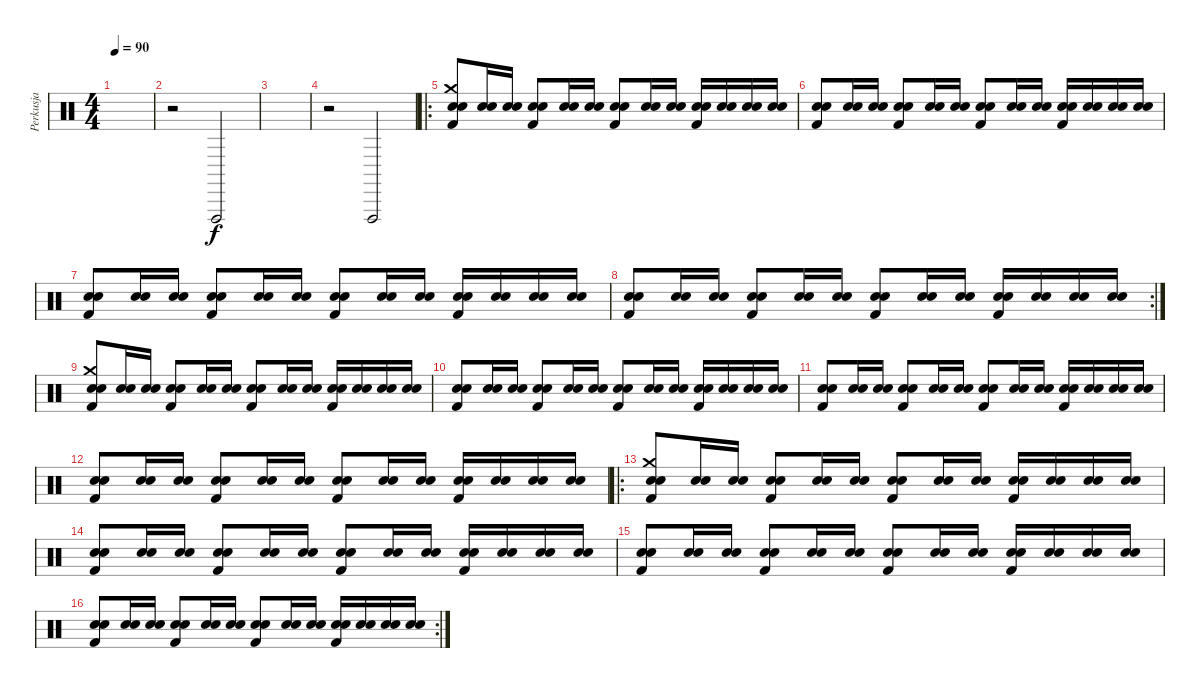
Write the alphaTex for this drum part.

\track ("Perkusja" "Perkusja") {instrument percussion}
\staff {score}
\articulation defaults
\ts (4 4)
\tempo 90
\clef neutral
\ks c
|
r.2 "Vibraslap (hit)".2 |
|
r.2 "Vibraslap (hit)".2 |
\ro
("Kick (hit) 2" "Crash medium (hit)" "Snare (hit) 2" "Electric Snare (hit)").8 ("Snare (hit) 2" "Electric Snare (hit)").16 ("Snare (hit) 2" "Electric Snare (hit)").16 ("Kick (hit) 2" "Snare (hit) 2" "Electric Snare (hit)").8 ("Snare (hit) 2" "Electric Snare (hit)").16 ("Snare (hit) 2" "Electric Snare (hit)").16 ("Kick (hit) 2" "Snare (hit) 2" "Electric Snare (hit)").8 ("Snare (hit) 2" "Electric Snare (hit)").16 ("Snare (hit) 2" "Electric Snare (hit)").16 ("Kick (hit) 2" "Snare (hit) 2" "Electric Snare (hit)").16 ("Snare (hit) 2" "Electric Snare (hit)").16 ("Snare (hit) 2" "Electric Snare (hit)").16 ("Snare (hit) 2" "Electric Snare (hit)").16 |
("Kick (hit) 2" "Snare (hit) 2" "Electric Snare (hit)").8 ("Snare (hit) 2" "Electric Snare (hit)").16 ("Snare (hit) 2" "Electric Snare (hit)").16 ("Kick (hit) 2" "Snare (hit) 2" "Electric Snare (hit)").8 ("Snare (hit) 2" "Electric Snare (hit)").16 ("Snare (hit) 2" "Electric Snare (hit)").16 ("Kick (hit) 2" "Snare (hit) 2" "Electric Snare (hit)").8 ("Snare (hit) 2" "Electric Snare (hit)").16 ("Snare (hit) 2" "Electric Snare (hit)").16 ("Kick (hit) 2" "Snare (hit) 2" "Electric Snare (hit)").16 ("Snare (hit) 2" "Electric Snare (hit)").16 ("Snare (hit) 2" "Electric Snare (hit)").16 ("Snare (hit) 2" "Electric Snare (hit)").16 |
("Kick (hit) 2" "Snare (hit) 2" "Electric Snare (hit)").8 ("Snare (hit) 2" "Electric Snare (hit)").16 ("Snare (hit) 2" "Electric Snare (hit)").16 ("Kick (hit) 2" "Snare (hit) 2" "Electric Snare (hit)").8 ("Snare (hit) 2" "Electric Snare (hit)").16 ("Snare (hit) 2" "Electric Snare (hit)").16 ("Kick (hit) 2" "Snare (hit) 2" "Electric Snare (hit)").8 ("Snare (hit) 2" "Electric Snare (hit)").16 ("Snare (hit) 2" "Electric Snare (hit)").16 ("Kick (hit) 2" "Snare (hit) 2" "Electric Snare (hit)").16 ("Snare (hit) 2" "Electric Snare (hit)").16 ("Snare (hit) 2" "Electric Snare (hit)").16 ("Snare (hit) 2" "Electric Snare (hit)").16 |
\rc 2
("Kick (hit) 2" "Snare (hit) 2" "Electric Snare (hit)").8 ("Snare (hit) 2" "Electric Snare (hit)").16 ("Snare (hit) 2" "Electric Snare (hit)").16 ("Kick (hit) 2" "Snare (hit) 2" "Electric Snare (hit)").8 ("Snare (hit) 2" "Electric Snare (hit)").16 ("Snare (hit) 2" "Electric Snare (hit)").16 ("Kick (hit) 2" "Snare (hit) 2" "Electric Snare (hit)").8 ("Snare (hit) 2" "Electric Snare (hit)").16 ("Snare (hit) 2" "Electric Snare (hit)").16 ("Kick (hit) 2" "Snare (hit) 2" "Electric Snare (hit)").16 ("Snare (hit) 2" "Electric Snare (hit)").16 ("Snare (hit) 2" "Electric Snare (hit)").16 ("Snare (hit) 2" "Electric Snare (hit)").16 |
("Kick (hit) 2" "Crash medium (hit)" "Snare (hit) 2" "Electric Snare (hit)").8 ("Snare (hit) 2" "Electric Snare (hit)").16 ("Snare (hit) 2" "Electric Snare (hit)").16 ("Kick (hit) 2" "Snare (hit) 2" "Electric Snare (hit)").8 ("Snare (hit) 2" "Electric Snare (hit)").16 ("Snare (hit) 2" "Electric Snare (hit)").16 ("Kick (hit) 2" "Snare (hit) 2" "Electric Snare (hit)").8 ("Snare (hit) 2" "Electric Snare (hit)").16 ("Snare (hit) 2" "Electric Snare (hit)").16 ("Kick (hit) 2" "Snare (hit) 2" "Electric Snare (hit)").16 ("Snare (hit) 2" "Electric Snare (hit)").16 ("Snare (hit) 2" "Electric Snare (hit)").16 ("Snare (hit) 2" "Electric Snare (hit)").16 |
("Kick (hit) 2" "Snare (hit) 2" "Electric Snare (hit)").8 ("Snare (hit) 2" "Electric Snare (hit)").16 ("Snare (hit) 2" "Electric Snare (hit)").16 ("Kick (hit) 2" "Snare (hit) 2" "Electric Snare (hit)").8 ("Snare (hit) 2" "Electric Snare (hit)").16 ("Snare (hit) 2" "Electric Snare (hit)").16 ("Kick (hit) 2" "Snare (hit) 2" "Electric Snare (hit)").8 ("Snare (hit) 2" "Electric Snare (hit)").16 ("Snare (hit) 2" "Electric Snare (hit)").16 ("Kick (hit) 2" "Snare (hit) 2" "Electric Snare (hit)").16 ("Snare (hit) 2" "Electric Snare (hit)").16 ("Snare (hit) 2" "Electric Snare (hit)").16 ("Snare (hit) 2" "Electric Snare (hit)").16 |
("Kick (hit) 2" "Snare (hit) 2" "Electric Snare (hit)").8 ("Snare (hit) 2" "Electric Snare (hit)").16 ("Snare (hit) 2" "Electric Snare (hit)").16 ("Kick (hit) 2" "Snare (hit) 2" "Electric Snare (hit)").8 ("Snare (hit) 2" "Electric Snare (hit)").16 ("Snare (hit) 2" "Electric Snare (hit)").16 ("Kick (hit) 2" "Snare (hit) 2" "Electric Snare (hit)").8 ("Snare (hit) 2" "Electric Snare (hit)").16 ("Snare (hit) 2" "Electric Snare (hit)").16 ("Kick (hit) 2" "Snare (hit) 2" "Electric Snare (hit)").16 ("Snare (hit) 2" "Electric Snare (hit)").16 ("Snare (hit) 2" "Electric Snare (hit)").16 ("Snare (hit) 2" "Electric Snare (hit)").16 |
("Kick (hit) 2" "Snare (hit) 2" "Electric Snare (hit)").8 ("Snare (hit) 2" "Electric Snare (hit)").16 ("Snare (hit) 2" "Electric Snare (hit)").16 ("Kick (hit) 2" "Snare (hit) 2" "Electric Snare (hit)").8 ("Snare (hit) 2" "Electric Snare (hit)").16 ("Snare (hit) 2" "Electric Snare (hit)").16 ("Kick (hit) 2" "Snare (hit) 2" "Electric Snare (hit)").8 ("Snare (hit) 2" "Electric Snare (hit)").16 ("Snare (hit) 2" "Electric Snare (hit)").16 ("Kick (hit) 2" "Snare (hit) 2" "Electric Snare (hit)").16 ("Snare (hit) 2" "Electric Snare (hit)").16 ("Snare (hit) 2" "Electric Snare (hit)").16 ("Snare (hit) 2" "Electric Snare (hit)").16 |
\ro
("Kick (hit) 2" "Crash medium (hit)" "Snare (hit) 2" "Electric Snare (hit)").8 ("Snare (hit) 2" "Electric Snare (hit)").16 ("Snare (hit) 2" "Electric Snare (hit)").16 ("Kick (hit) 2" "Snare (hit) 2" "Electric Snare (hit)").8 ("Snare (hit) 2" "Electric Snare (hit)").16 ("Snare (hit) 2" "Electric Snare (hit)").16 ("Kick (hit) 2" "Snare (hit) 2" "Electric Snare (hit)").8 ("Snare (hit) 2" "Electric Snare (hit)").16 ("Snare (hit) 2" "Electric Snare (hit)").16 ("Kick (hit) 2" "Snare (hit) 2" "Electric Snare (hit)").16 ("Snare (hit) 2" "Electric Snare (hit)").16 ("Snare (hit) 2" "Electric Snare (hit)").16 ("Snare (hit) 2" "Electric Snare (hit)").16 |
("Kick (hit) 2" "Snare (hit) 2" "Electric Snare (hit)").8 ("Snare (hit) 2" "Electric Snare (hit)").16 ("Snare (hit) 2" "Electric Snare (hit)").16 ("Kick (hit) 2" "Snare (hit) 2" "Electric Snare (hit)").8 ("Snare (hit) 2" "Electric Snare (hit)").16 ("Snare (hit) 2" "Electric Snare (hit)").16 ("Kick (hit) 2" "Snare (hit) 2" "Electric Snare (hit)").8 ("Snare (hit) 2" "Electric Snare (hit)").16 ("Snare (hit) 2" "Electric Snare (hit)").16 ("Kick (hit) 2" "Snare (hit) 2" "Electric Snare (hit)").16 ("Snare (hit) 2" "Electric Snare (hit)").16 ("Snare (hit) 2" "Electric Snare (hit)").16 ("Snare (hit) 2" "Electric Snare (hit)").16 |
("Kick (hit) 2" "Snare (hit) 2" "Electric Snare (hit)").8 ("Snare (hit) 2" "Electric Snare (hit)").16 ("Snare (hit) 2" "Electric Snare (hit)").16 ("Kick (hit) 2" "Snare (hit) 2" "Electric Snare (hit)").8 ("Snare (hit) 2" "Electric Snare (hit)").16 ("Snare (hit) 2" "Electric Snare (hit)").16 ("Kick (hit) 2" "Snare (hit) 2" "Electric Snare (hit)").8 ("Snare (hit) 2" "Electric Snare (hit)").16 ("Snare (hit) 2" "Electric Snare (hit)").16 ("Kick (hit) 2" "Snare (hit) 2" "Electric Snare (hit)").16 ("Snare (hit) 2" "Electric Snare (hit)").16 ("Snare (hit) 2" "Electric Snare (hit)").16 ("Snare (hit) 2" "Electric Snare (hit)").16 |
\rc 2
("Kick (hit) 2" "Snare (hit) 2" "Electric Snare (hit)").8 ("Snare (hit) 2" "Electric Snare (hit)").16 ("Snare (hit) 2" "Electric Snare (hit)").16 ("Kick (hit) 2" "Snare (hit) 2" "Electric Snare (hit)").8 ("Snare (hit) 2" "Electric Snare (hit)").16 ("Snare (hit) 2" "Electric Snare (hit)").16 ("Kick (hit) 2" "Snare (hit) 2" "Electric Snare (hit)").8 ("Snare (hit) 2" "Electric Snare (hit)").16 ("Snare (hit) 2" "Electric Snare (hit)").16 ("Kick (hit) 2" "Snare (hit) 2" "Electric Snare (hit)").16 ("Snare (hit) 2" "Electric Snare (hit)").16 ("Snare (hit) 2" "Electric Snare (hit)").16 ("Snare (hit) 2" "Electric Snare (hit)").16
